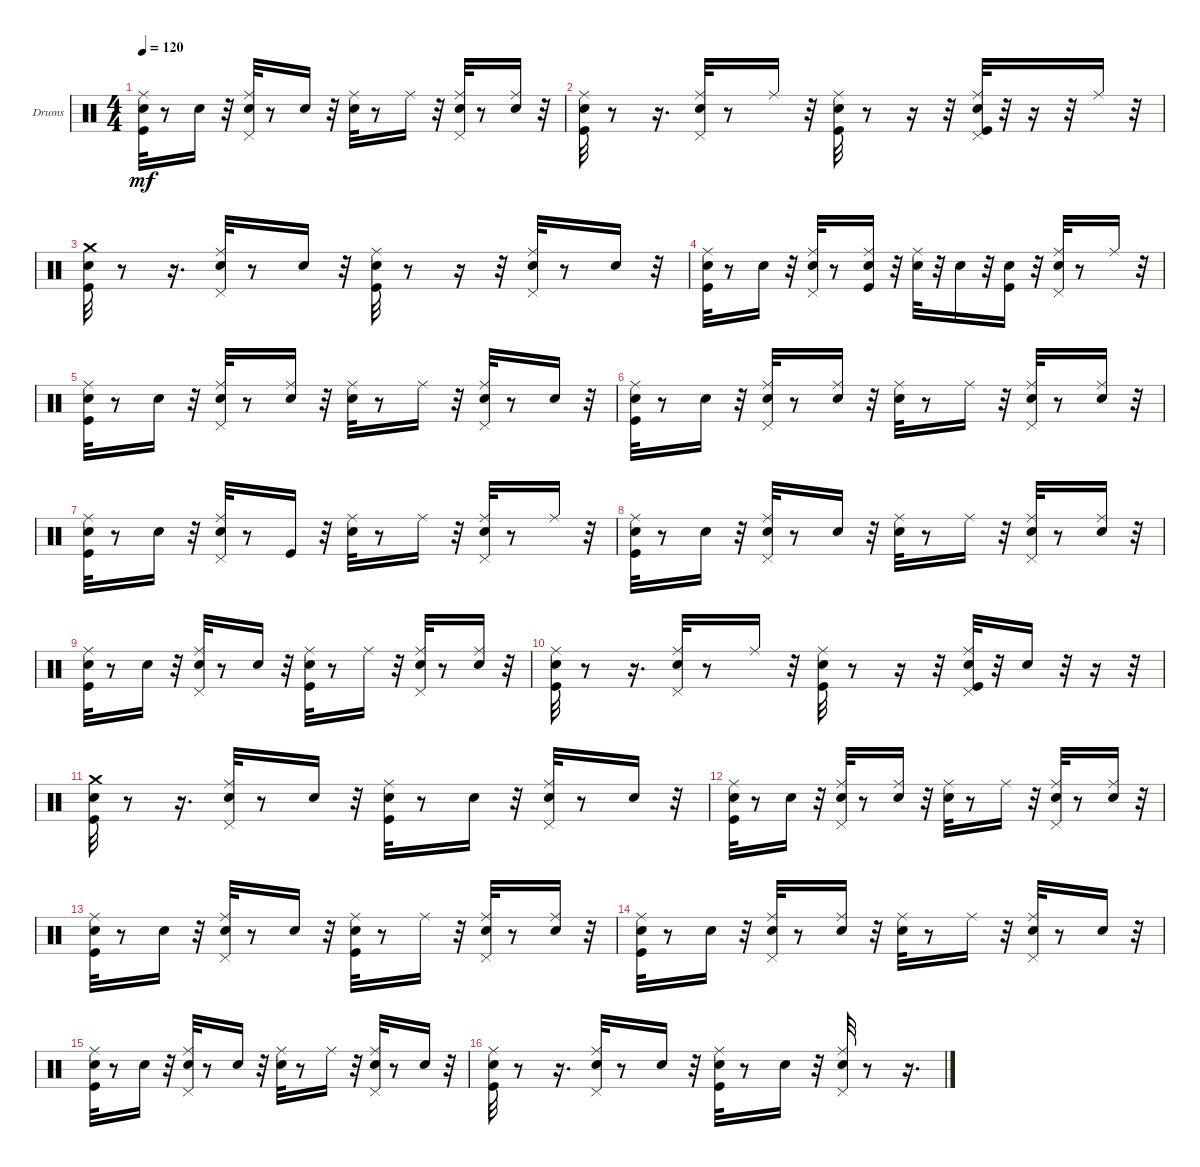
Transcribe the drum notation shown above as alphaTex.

\bracketExtendMode groupsimilarinstruments
\firstSystemTrackNameOrientation horizontal
\otherSystemsTrackNameOrientation horizontal
\track ("Drums   (BB)" "Drums") {instrument percussion}
\staff {score}
\articulation defaults
\ts (4 4)
\tempo 120
\clef neutral
\ks c
("Kick (hit)" "Snare (hit) 2" "Ride (middle)").32{dy mf} r.8 "Snare (hit) 2".16 r.32 ("Snare (hit) 2" "Ride (middle)" "Pedal Hi-Hat (hit)").32 r.8 "Snare (hit) 2".16 r.32 ("Snare (hit) 2" "Ride (middle)").32 r.8 "Ride (middle)".16 r.32 ("Snare (hit) 2" "Ride (middle)" "Pedal Hi-Hat (hit)").32 r.8 ("Snare (hit) 2" "Ride (middle)").16 r.32 |
("Kick (hit)" "Snare (hit) 2" "Ride (middle)").32 r.8 r.16{d} ("Snare (hit) 2" "Ride (middle)" "Pedal Hi-Hat (hit)").32 r.8 "Ride (middle)".16 r.32 ("Kick (hit)" "Snare (hit) 2" "Ride (middle)").32 r.8 r.16 r.32 ("Kick (hit)" "Snare (hit) 2" "Ride (middle)" "Pedal Hi-Hat (hit)").32 r.32 r.16 r.32 "Ride (middle)".16 r.32 |
("Kick (hit)" "Snare (hit) 2" "Crash medium (hit)").32 r.8 r.16{d} ("Snare (hit) 2" "Ride (middle)" "Pedal Hi-Hat (hit)").32 r.8 "Snare (hit) 2".16 r.32 ("Kick (hit)" "Snare (hit) 2" "Ride (middle)").32 r.8 r.16 r.32 ("Snare (hit) 2" "Ride (middle)" "Pedal Hi-Hat (hit)").32 r.8 "Snare (hit) 2".16 r.32 |
("Kick (hit)" "Snare (hit) 2" "Ride (middle)").32 r.8 "Snare (hit) 2".16 r.32 ("Snare (hit) 2" "Ride (middle)" "Pedal Hi-Hat (hit)").32 r.8 ("Kick (hit)" "Snare (hit) 2" "Ride (middle)").16 r.32 ("Snare (hit) 2" "Ride (middle)").32 r.32 "Snare (hit) 2".16 r.32 ("Kick (hit)" "Snare (hit) 2").16 r.32 ("Snare (hit) 2" "Ride (middle)" "Pedal Hi-Hat (hit)").32 r.8 "Ride (middle)".16 r.32 |
("Kick (hit)" "Snare (hit) 2" "Ride (middle)").32 r.8 "Snare (hit) 2".16 r.32 ("Snare (hit) 2" "Ride (middle)" "Pedal Hi-Hat (hit)").32 r.8 ("Snare (hit) 2" "Ride (middle)").16 r.32 ("Snare (hit) 2" "Ride (middle)").32 r.8 "Ride (middle)".16 r.32 ("Snare (hit) 2" "Ride (middle)" "Pedal Hi-Hat (hit)").32 r.8 "Snare (hit) 2".16 r.32 |
("Kick (hit)" "Snare (hit) 2" "Ride (middle)").32 r.8 "Snare (hit) 2".16 r.32 ("Snare (hit) 2" "Ride (middle)" "Pedal Hi-Hat (hit)").32 r.8 ("Snare (hit) 2" "Ride (middle)").16 r.32 ("Snare (hit) 2" "Ride (middle)").32 r.8 "Ride (middle)".16 r.32 ("Snare (hit) 2" "Ride (middle)" "Pedal Hi-Hat (hit)").32 r.8 ("Snare (hit) 2" "Ride (middle)").16 r.32 |
("Kick (hit)" "Snare (hit) 2" "Ride (middle)").32 r.8 "Snare (hit) 2".16 r.32 ("Snare (hit) 2" "Ride (middle)" "Pedal Hi-Hat (hit)").32 r.8 "Kick (hit)".16 r.32 ("Snare (hit) 2" "Ride (middle)").32 r.8 "Ride (middle)".16 r.32 ("Snare (hit) 2" "Ride (middle)" "Pedal Hi-Hat (hit)").32 r.8 "Ride (middle)".16 r.32 |
("Kick (hit)" "Snare (hit) 2" "Ride (middle)").32 r.8 "Snare (hit) 2".16 r.32 ("Snare (hit) 2" "Ride (middle)" "Pedal Hi-Hat (hit)").32 r.8 "Snare (hit) 2".16 r.32 ("Snare (hit) 2" "Ride (middle)").32 r.8 "Ride (middle)".16 r.32 ("Snare (hit) 2" "Ride (middle)" "Pedal Hi-Hat (hit)").32 r.8 ("Snare (hit) 2" "Ride (middle)").16 r.32 |
("Kick (hit)" "Snare (hit) 2" "Ride (middle)").32 r.8 "Snare (hit) 2".16 r.32 ("Snare (hit) 2" "Ride (middle)" "Pedal Hi-Hat (hit)").32 r.8 "Snare (hit) 2".16 r.32 ("Kick (hit)" "Snare (hit) 2" "Ride (middle)").32 r.8 "Ride (middle)".16 r.32 ("Snare (hit) 2" "Ride (middle)" "Pedal Hi-Hat (hit)").32 r.8 ("Snare (hit) 2" "Ride (middle)").16 r.32 |
("Kick (hit)" "Snare (hit) 2" "Ride (middle)").32 r.8 r.16{d} ("Snare (hit) 2" "Ride (middle)" "Pedal Hi-Hat (hit)").32 r.8 "Ride (middle)".16 r.32 ("Kick (hit)" "Snare (hit) 2" "Ride (middle)").32 r.8 r.16 r.32 ("Kick (hit)" "Snare (hit) 2" "Ride (middle)" "Pedal Hi-Hat (hit)").32 r.32 "Snare (hit) 2".16 r.32 r.16 r.32 |
("Kick (hit)" "Snare (hit) 2" "Crash medium (hit)").32 r.8 r.16{d} ("Snare (hit) 2" "Ride (middle)" "Pedal Hi-Hat (hit)").32 r.8 "Snare (hit) 2".16 r.32 ("Kick (hit)" "Snare (hit) 2" "Ride (middle)").32 r.8 "Snare (hit) 2".16 r.32 ("Snare (hit) 2" "Ride (middle)" "Pedal Hi-Hat (hit)").32 r.8 "Snare (hit) 2".16 r.32 |
("Kick (hit)" "Snare (hit) 2" "Ride (middle)").32 r.8 "Snare (hit) 2".16 r.32 ("Snare (hit) 2" "Ride (middle)" "Pedal Hi-Hat (hit)").32 r.8 ("Snare (hit) 2" "Ride (middle)").16 r.32 ("Snare (hit) 2" "Ride (middle)").32 r.8 "Ride (middle)".16 r.32 ("Snare (hit) 2" "Ride (middle)" "Pedal Hi-Hat (hit)").32 r.8 ("Snare (hit) 2" "Ride (middle)").16 r.32 |
("Kick (hit)" "Snare (hit) 2" "Ride (middle)").32 r.8 "Snare (hit) 2".16 r.32 ("Snare (hit) 2" "Ride (middle)" "Pedal Hi-Hat (hit)").32 r.8 "Snare (hit) 2".16 r.32 ("Kick (hit)" "Snare (hit) 2" "Ride (middle)").32 r.8 "Ride (middle)".16 r.32 ("Snare (hit) 2" "Ride (middle)" "Pedal Hi-Hat (hit)").32 r.8 ("Snare (hit) 2" "Ride (middle)").16 r.32 |
("Kick (hit)" "Snare (hit) 2" "Ride (middle)").32 r.8 "Snare (hit) 2".16 r.32 ("Snare (hit) 2" "Ride (middle)" "Pedal Hi-Hat (hit)").32 r.8 ("Snare (hit) 2" "Ride (middle)").16 r.32 ("Snare (hit) 2" "Ride (middle)").32 r.8 "Ride (middle)".16 r.32 ("Snare (hit) 2" "Ride (middle)" "Pedal Hi-Hat (hit)").32 r.8 "Snare (hit) 2".16 r.32 |
("Kick (hit)" "Snare (hit) 2" "Ride (middle)").32 r.8 "Snare (hit) 2".16 r.32 ("Snare (hit) 2" "Ride (middle)" "Pedal Hi-Hat (hit)").32 r.8 "Snare (hit) 2".16 r.32 ("Snare (hit) 2" "Ride (middle)").32 r.8 "Ride (middle)".16 r.32 ("Snare (hit) 2" "Ride (middle)" "Pedal Hi-Hat (hit)").32 r.8 "Snare (hit) 2".16 r.32 |
("Kick (hit)" "Snare (hit) 2" "Ride (middle)").32 r.8 r.16{d} ("Snare (hit) 2" "Ride (middle)" "Pedal Hi-Hat (hit)").32 r.8 "Snare (hit) 2".16 r.32 ("Kick (hit)" "Snare (hit) 2" "Ride (middle)").32 r.8 "Snare (hit) 2".16 r.32 ("Snare (hit) 2" "Ride (middle)" "Pedal Hi-Hat (hit)").32 r.8 r.16{d}
